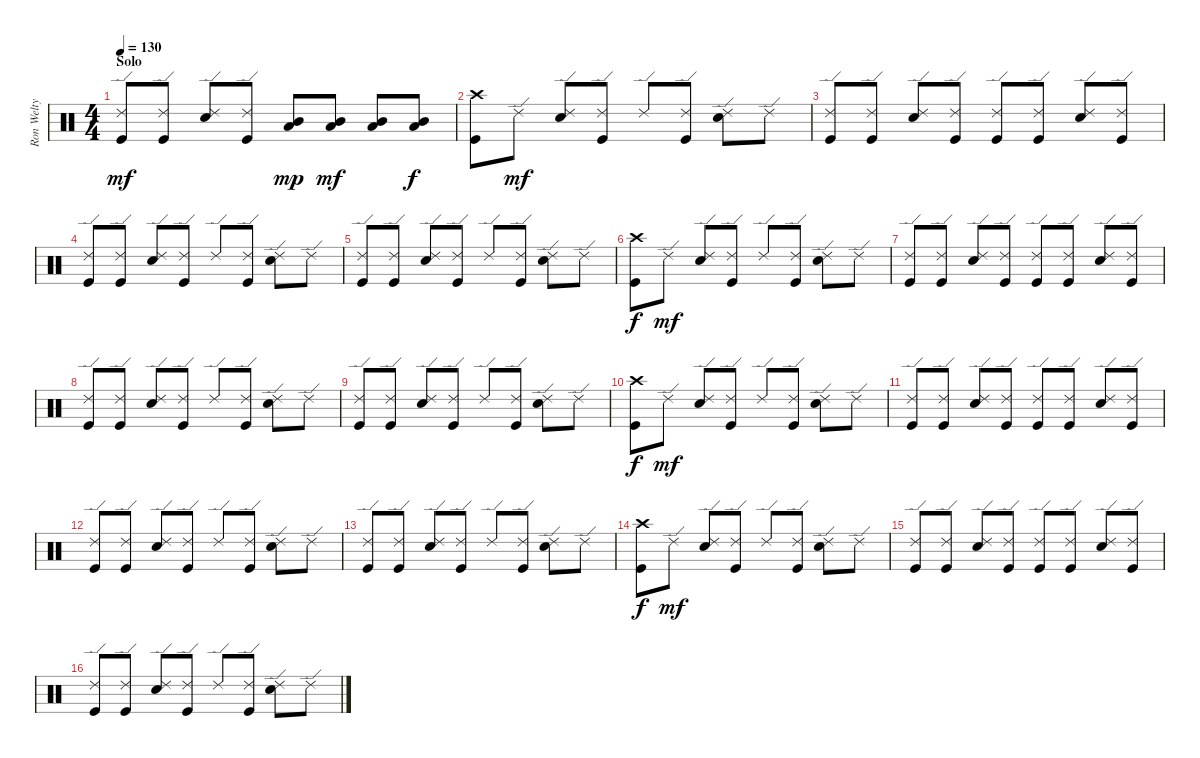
\track ("Ron Welty" "Ron Welty") {instrument percussion}
\staff {score}
\articulation defaults
\ts (4 4)
\section ("" "Solo")
\tempo 130
\clef neutral
\ks c
("Kick (hit)" "Ride (edge) 2").8{dy mf} ("Kick (hit)" "Ride (edge) 2").8 ("Electric Snare (hit)" "Ride (edge) 2").8 ("Kick (hit)" "Ride (edge) 2").8 ("Low Floor Tom (hit)" "Mid Tom (hit)").8{dy mp} ("Mid Tom (hit)" "Low Floor Tom (hit)").8{dy mf} ("Mid Tom (hit)" "Low Floor Tom (hit)").8 ("Mid Tom (hit)" "Low Floor Tom (hit)").8{dy f} |
("Kick (hit)" "Crash high (hit)").8 "Ride (edge) 2".8{dy mf} ("Electric Snare (hit)" "Ride (edge) 2").8 ("Kick (hit)" "Ride (edge) 2").8 "Ride (edge) 2".8 ("Kick (hit)" "Ride (edge) 2").8 ("Electric Snare (hit)" "Ride (edge) 2").8 "Ride (edge) 2".8 |
("Kick (hit)" "Ride (edge) 2").8 ("Kick (hit)" "Ride (edge) 2").8 ("Electric Snare (hit)" "Ride (edge) 2").8 ("Kick (hit)" "Ride (edge) 2").8 ("Kick (hit)" "Ride (edge) 2").8 ("Kick (hit)" "Ride (edge) 2").8 ("Electric Snare (hit)" "Ride (edge) 2").8 ("Kick (hit)" "Ride (edge) 2").8 |
("Kick (hit)" "Ride (edge) 2").8 ("Kick (hit)" "Ride (edge) 2").8 ("Electric Snare (hit)" "Ride (edge) 2").8 ("Kick (hit)" "Ride (edge) 2").8 "Ride (edge) 2".8 ("Kick (hit)" "Ride (edge) 2").8 ("Electric Snare (hit)" "Ride (edge) 2").8 "Ride (edge) 2".8 |
("Kick (hit)" "Ride (edge) 2").8 ("Kick (hit)" "Ride (edge) 2").8 ("Electric Snare (hit)" "Ride (edge) 2").8 ("Kick (hit)" "Ride (edge) 2").8 "Ride (edge) 2".8 ("Kick (hit)" "Ride (edge) 2").8 ("Electric Snare (hit)" "Ride (edge) 2").8 "Ride (edge) 2".8 |
("Kick (hit)" "Crash high (hit)").8{dy f} "Ride (edge) 2".8{dy mf} ("Electric Snare (hit)" "Ride (edge) 2").8 ("Kick (hit)" "Ride (edge) 2").8 "Ride (edge) 2".8 ("Kick (hit)" "Ride (edge) 2").8 ("Electric Snare (hit)" "Ride (edge) 2").8 "Ride (edge) 2".8 |
("Kick (hit)" "Ride (edge) 2").8 ("Kick (hit)" "Ride (edge) 2").8 ("Electric Snare (hit)" "Ride (edge) 2").8 ("Kick (hit)" "Ride (edge) 2").8 ("Kick (hit)" "Ride (edge) 2").8 ("Kick (hit)" "Ride (edge) 2").8 ("Electric Snare (hit)" "Ride (edge) 2").8 ("Kick (hit)" "Ride (edge) 2").8 |
("Kick (hit)" "Ride (edge) 2").8 ("Kick (hit)" "Ride (edge) 2").8 ("Electric Snare (hit)" "Ride (edge) 2").8 ("Kick (hit)" "Ride (edge) 2").8 "Ride (edge) 2".8 ("Kick (hit)" "Ride (edge) 2").8 ("Electric Snare (hit)" "Ride (edge) 2").8 "Ride (edge) 2".8 |
("Kick (hit)" "Ride (edge) 2").8 ("Kick (hit)" "Ride (edge) 2").8 ("Electric Snare (hit)" "Ride (edge) 2").8 ("Kick (hit)" "Ride (edge) 2").8 "Ride (edge) 2".8 ("Kick (hit)" "Ride (edge) 2").8 ("Electric Snare (hit)" "Ride (edge) 2").8 "Ride (edge) 2".8 |
("Kick (hit)" "Crash high (hit)").8{dy f} "Ride (edge) 2".8{dy mf} ("Electric Snare (hit)" "Ride (edge) 2").8 ("Kick (hit)" "Ride (edge) 2").8 "Ride (edge) 2".8 ("Kick (hit)" "Ride (edge) 2").8 ("Electric Snare (hit)" "Ride (edge) 2").8 "Ride (edge) 2".8 |
("Kick (hit)" "Ride (edge) 2").8 ("Kick (hit)" "Ride (edge) 2").8 ("Electric Snare (hit)" "Ride (edge) 2").8 ("Kick (hit)" "Ride (edge) 2").8 ("Kick (hit)" "Ride (edge) 2").8 ("Kick (hit)" "Ride (edge) 2").8 ("Electric Snare (hit)" "Ride (edge) 2").8 ("Kick (hit)" "Ride (edge) 2").8 |
("Kick (hit)" "Ride (edge) 2").8 ("Kick (hit)" "Ride (edge) 2").8 ("Electric Snare (hit)" "Ride (edge) 2").8 ("Kick (hit)" "Ride (edge) 2").8 "Ride (edge) 2".8 ("Kick (hit)" "Ride (edge) 2").8 ("Electric Snare (hit)" "Ride (edge) 2").8 "Ride (edge) 2".8 |
("Kick (hit)" "Ride (edge) 2").8 ("Kick (hit)" "Ride (edge) 2").8 ("Electric Snare (hit)" "Ride (edge) 2").8 ("Kick (hit)" "Ride (edge) 2").8 "Ride (edge) 2".8 ("Kick (hit)" "Ride (edge) 2").8 ("Electric Snare (hit)" "Ride (edge) 2").8 "Ride (edge) 2".8 |
("Kick (hit)" "Crash high (hit)").8{dy f} "Ride (edge) 2".8{dy mf} ("Electric Snare (hit)" "Ride (edge) 2").8 ("Kick (hit)" "Ride (edge) 2").8 "Ride (edge) 2".8 ("Kick (hit)" "Ride (edge) 2").8 ("Electric Snare (hit)" "Ride (edge) 2").8 "Ride (edge) 2".8 |
("Kick (hit)" "Ride (edge) 2").8 ("Kick (hit)" "Ride (edge) 2").8 ("Electric Snare (hit)" "Ride (edge) 2").8 ("Kick (hit)" "Ride (edge) 2").8 ("Kick (hit)" "Ride (edge) 2").8 ("Kick (hit)" "Ride (edge) 2").8 ("Electric Snare (hit)" "Ride (edge) 2").8 ("Kick (hit)" "Ride (edge) 2").8 |
("Kick (hit)" "Ride (edge) 2").8 ("Kick (hit)" "Ride (edge) 2").8 ("Electric Snare (hit)" "Ride (edge) 2").8 ("Kick (hit)" "Ride (edge) 2").8 "Ride (edge) 2".8 ("Kick (hit)" "Ride (edge) 2").8 ("Electric Snare (hit)" "Ride (edge) 2").8 "Ride (edge) 2".8
